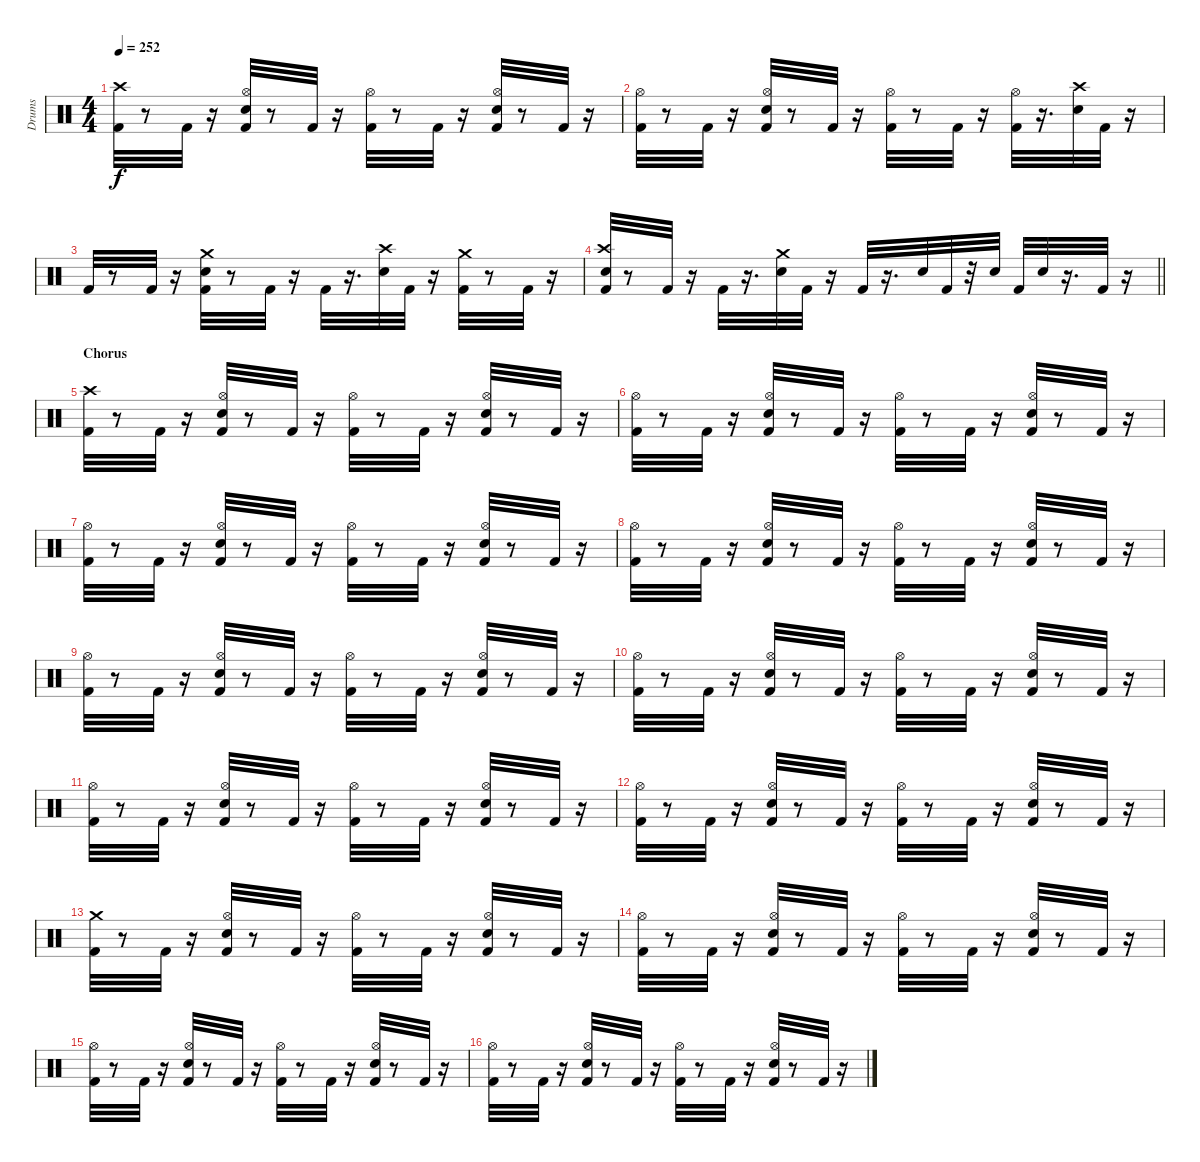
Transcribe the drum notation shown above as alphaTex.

\track ("Drums" "Drums") {instrument percussion}
\staff {score}
\articulation defaults
\ts (4 4)
\tempo 252
\clef neutral
\ks c
("Kick (hit) 2" "Crash high (hit)").32{dy f} r.8 "Kick (hit) 2".32 r.16 ("Hi-Hat (open)" "Kick (hit) 2" "Snare (hit) 2").32 r.8 "Kick (hit) 2".32 r.16 ("Hi-Hat (open)" "Kick (hit) 2").32 r.8 "Kick (hit) 2".32 r.16 ("Hi-Hat (open)" "Kick (hit) 2" "Snare (hit) 2").32 r.8 "Kick (hit) 2".32 r.16 |
("Kick (hit) 2" "Hi-Hat (open)").32 r.8 "Kick (hit) 2".32 r.16 ("Snare (hit) 2" "Hi-Hat (open)" "Kick (hit) 2").32 r.8 "Kick (hit) 2".32 r.16 ("Hi-Hat (open)" "Kick (hit) 2").32 r.8 "Kick (hit) 2".32 r.16 ("Hi-Hat (open)" "Kick (hit) 2").32 r.16{d} ("Crash high (hit)" "Snare (hit) 2").32 "Kick (hit) 2".32 r.16 |
"Kick (hit) 2".32 r.8 "Kick (hit) 2".32 r.16 ("Snare (hit) 2" "Crash medium (hit)" "Kick (hit) 2").32 r.8 "Kick (hit) 2".32 r.16 "Kick (hit) 2".32 r.16{d} ("Snare (hit) 2" "Crash high (hit)").32 "Kick (hit) 2".32 r.16 ("Crash medium (hit)" "Kick (hit) 2").32 r.8 "Kick (hit) 2".32 r.16 |
\barLineRight lightlight
("Crash high (hit)" "Kick (hit) 2" "Snare (hit) 2").32 r.8 "Kick (hit) 2".32 r.16 "Kick (hit) 2".32 r.16{d} ("Snare (hit) 2" "Crash medium (hit)").32 "Kick (hit) 2".32 r.16 "Kick (hit) 2".32 r.16{d} "Snare (hit) 2".32 "Kick (hit) 2".32 r.32 "Snare (hit) 2".32 "Kick (hit) 2".32 "Snare (hit) 2".32 r.16{d} "Kick (hit) 2".32 r.16 |
\section ("" "Chorus")
("Kick (hit) 2" "Crash high (hit)").32 r.8 "Kick (hit) 2".32 r.16 ("Hi-Hat (open)" "Snare (hit) 2" "Kick (hit) 2").32 r.8 "Kick (hit) 2".32 r.16 ("Kick (hit) 2" "Hi-Hat (open)").32 r.8 "Kick (hit) 2".32 r.16 ("Hi-Hat (open)" "Kick (hit) 2" "Snare (hit) 2").32 r.8 "Kick (hit) 2".32 r.16 |
("Hi-Hat (open)" "Kick (hit) 2").32 r.8 "Kick (hit) 2".32 r.16 ("Snare (hit) 2" "Kick (hit) 2" "Hi-Hat (open)").32 r.8 "Kick (hit) 2".32 r.16 ("Kick (hit) 2" "Hi-Hat (open)").32 r.8 "Kick (hit) 2".32 r.16 ("Snare (hit) 2" "Kick (hit) 2" "Hi-Hat (open)").32 r.8 "Kick (hit) 2".32 r.16 |
("Hi-Hat (open)" "Kick (hit) 2").32 r.8 "Kick (hit) 2".32 r.16 ("Hi-Hat (open)" "Kick (hit) 2" "Snare (hit) 2").32 r.8 "Kick (hit) 2".32 r.16 ("Kick (hit) 2" "Hi-Hat (open)").32 r.8 "Kick (hit) 2".32 r.16 ("Hi-Hat (open)" "Kick (hit) 2" "Snare (hit) 2").32 r.8 "Kick (hit) 2".32 r.16 |
("Kick (hit) 2" "Hi-Hat (open)").32 r.8 "Kick (hit) 2".32 r.16 ("Hi-Hat (open)" "Kick (hit) 2" "Snare (hit) 2").32 r.8 "Kick (hit) 2".32 r.16 ("Kick (hit) 2" "Hi-Hat (open)").32 r.8 "Kick (hit) 2".32 r.16 ("Hi-Hat (open)" "Kick (hit) 2" "Snare (hit) 2").32 r.8 "Kick (hit) 2".32 r.16 |
("Hi-Hat (open)" "Kick (hit) 2").32 r.8 "Kick (hit) 2".32 r.16 ("Kick (hit) 2" "Hi-Hat (open)" "Snare (hit) 2").32 r.8 "Kick (hit) 2".32 r.16 ("Kick (hit) 2" "Hi-Hat (open)").32 r.8 "Kick (hit) 2".32 r.16 ("Snare (hit) 2" "Hi-Hat (open)" "Kick (hit) 2").32 r.8 "Kick (hit) 2".32 r.16 |
("Kick (hit) 2" "Hi-Hat (open)").32 r.8 "Kick (hit) 2".32 r.16 ("Snare (hit) 2" "Hi-Hat (open)" "Kick (hit) 2").32 r.8 "Kick (hit) 2".32 r.16 ("Hi-Hat (open)" "Kick (hit) 2").32 r.8 "Kick (hit) 2".32 r.16 ("Hi-Hat (open)" "Snare (hit) 2" "Kick (hit) 2").32 r.8 "Kick (hit) 2".32 r.16 |
("Hi-Hat (open)" "Kick (hit) 2").32 r.8 "Kick (hit) 2".32 r.16 ("Snare (hit) 2" "Hi-Hat (open)" "Kick (hit) 2").32 r.8 "Kick (hit) 2".32 r.16 ("Kick (hit) 2" "Hi-Hat (open)").32 r.8 "Kick (hit) 2".32 r.16 ("Snare (hit) 2" "Kick (hit) 2" "Hi-Hat (open)").32 r.8 "Kick (hit) 2".32 r.16 |
("Hi-Hat (open)" "Kick (hit) 2").32 r.8 "Kick (hit) 2".32 r.16 ("Snare (hit) 2" "Hi-Hat (open)" "Kick (hit) 2").32 r.8 "Kick (hit) 2".32 r.16 ("Kick (hit) 2" "Hi-Hat (open)").32 r.8 "Kick (hit) 2".32 r.16 ("Snare (hit) 2" "Hi-Hat (open)" "Kick (hit) 2").32 r.8 "Kick (hit) 2".32 r.16 |
("Kick (hit) 2" "Crash medium (hit)").32 r.8 "Kick (hit) 2".32 r.16 ("Snare (hit) 2" "Kick (hit) 2" "Hi-Hat (open)").32 r.8 "Kick (hit) 2".32 r.16 ("Kick (hit) 2" "Hi-Hat (open)").32 r.8 "Kick (hit) 2".32 r.16 ("Kick (hit) 2" "Hi-Hat (open)" "Snare (hit) 2").32 r.8 "Kick (hit) 2".32 r.16 |
("Kick (hit) 2" "Hi-Hat (open)").32 r.8 "Kick (hit) 2".32 r.16 ("Hi-Hat (open)" "Kick (hit) 2" "Snare (hit) 2").32 r.8 "Kick (hit) 2".32 r.16 ("Kick (hit) 2" "Hi-Hat (open)").32 r.8 "Kick (hit) 2".32 r.16 ("Snare (hit) 2" "Hi-Hat (open)" "Kick (hit) 2").32 r.8 "Kick (hit) 2".32 r.16 |
("Hi-Hat (open)" "Kick (hit) 2").32 r.8 "Kick (hit) 2".32 r.16 ("Snare (hit) 2" "Hi-Hat (open)" "Kick (hit) 2").32 r.8 "Kick (hit) 2".32 r.16 ("Hi-Hat (open)" "Kick (hit) 2").32 r.8 "Kick (hit) 2".32 r.16 ("Hi-Hat (open)" "Snare (hit) 2" "Kick (hit) 2").32 r.8 "Kick (hit) 2".32 r.16 |
("Hi-Hat (open)" "Kick (hit) 2").32 r.8 "Kick (hit) 2".32 r.16 ("Hi-Hat (open)" "Snare (hit) 2" "Kick (hit) 2").32 r.8 "Kick (hit) 2".32 r.16 ("Hi-Hat (open)" "Kick (hit) 2").32 r.8 "Kick (hit) 2".32 r.16 ("Hi-Hat (open)" "Snare (hit) 2" "Kick (hit) 2").32 r.8 "Kick (hit) 2".32 r.16
